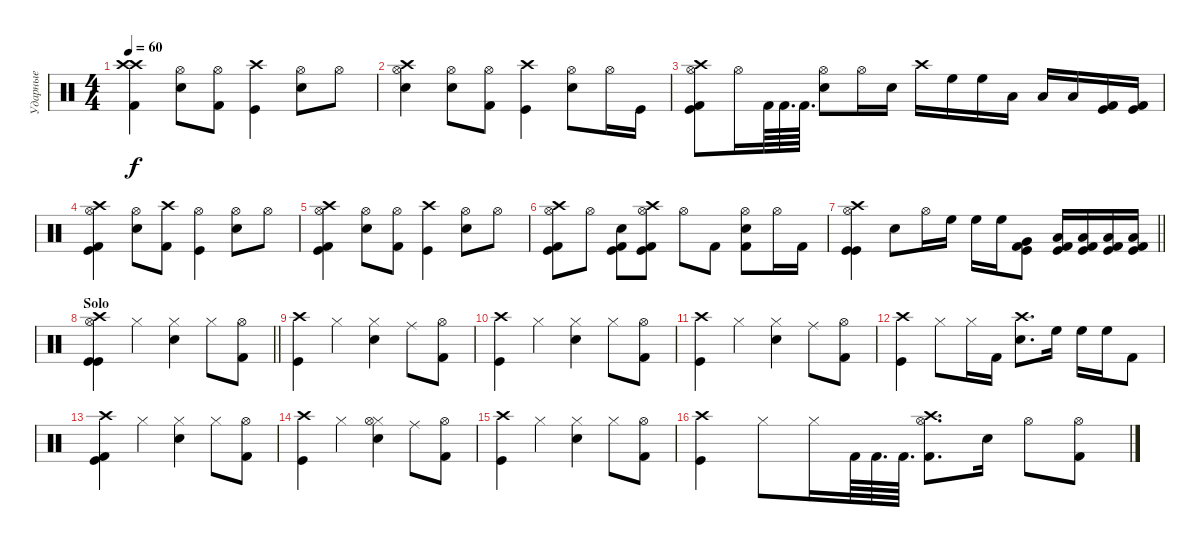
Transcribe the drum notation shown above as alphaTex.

\track ("Ударные" "Ударные") {instrument percussion}
\staff {score}
\articulation defaults
\ts (4 4)
\section ("" "")
\tempo 60
\clef neutral
\ks c
("Crash high (hit)" "Kick (hit) 2" "Crash high (hit)").4{dy f} ("Hi-Hat (open)" "Snare (hit) 2").8 ("Hi-Hat (open)" "Kick (hit) 2").8 ("Crash high (hit)" "Kick (hit)").4 ("Hi-Hat (open)" "Snare (hit) 2").8 "Hi-Hat (open)".8 |
("Crash high (hit)" "Hi-Hat (open)" "Snare (hit) 2").4 ("Hi-Hat (open)" "Snare (hit) 2").8 ("Hi-Hat (open)" "Kick (hit) 2").8 ("Crash high (hit)" "Kick (hit)").4 ("Hi-Hat (open)" "Snare (hit) 2").8 "Hi-Hat (open)".16 "Kick (hit)".16 |
("Crash high (hit)" "Kick (hit) 2" "Kick (hit)" "Hi-Hat (open)").8 "Hi-Hat (open)".16 "Kick (hit) 2".64 "Kick (hit) 2".64{d} "Kick (hit) 2".64{d} ("Hi-Hat (open)" "Snare (hit) 2").8 "Hi-Hat (open)".16 "Snare (hit) 2".16 "Crash high (hit)".16 "High Floor Tom (hit)".16 "High Floor Tom (hit)".16 "Low Floor Tom (hit)".16 "Low Floor Tom (hit)".16 "Low Floor Tom (hit)".16 ("Kick (hit) 2" "Kick (hit)").16 ("Kick (hit) 2" "Kick (hit)").16 |
("Crash high (hit)" "Kick (hit) 2" "Kick (hit)" "Hi-Hat (open)").4 ("Hi-Hat (open)" "Snare (hit) 2").8{beam merge} ("Crash high (hit)" "Kick (hit) 2").8 ("Hi-Hat (open)" "Kick (hit)").4 ("Hi-Hat (open)" "Snare (hit) 2").8 "Hi-Hat (open)".8 |
("Kick (hit)" "Crash high (hit)" "Kick (hit) 2" "Hi-Hat (open)").4 ("Hi-Hat (open)" "Snare (hit) 2").8 ("Hi-Hat (open)" "Kick (hit) 2").8 ("Crash high (hit)" "Kick (hit)").4 ("Hi-Hat (open)" "Snare (hit) 2").8 "Hi-Hat (open)".8 |
("Crash high (hit)" "Kick (hit)" "Kick (hit) 2" "Hi-Hat (open)").8 "Hi-Hat (open)".8 ("Snare (hit) 2" "Kick (hit) 2" "Kick (hit)").8 ("Crash high (hit)" "Kick (hit)" "Kick (hit) 2" "Hi-Hat (open)").8 "Hi-Hat (open)".8 "Kick (hit) 2".8 ("Hi-Hat (open)" "Snare (hit) 2" "Kick (hit) 2").8 "Hi-Hat (open)".16 "Kick (hit) 2".16 |
\barLineRight lightlight
("Crash high (hit)" "Kick (hit)" "Kick (hit)" "Hi-Hat (open)").4 "Snare (hit) 2".8 "Hi-Hat (open)".16 "High Floor Tom (hit)".16 "High Floor Tom (hit)".16 "High Floor Tom (hit)".16 ("Very Low Tom (hit)" "Kick (hit) 2" "Kick (hit)").8 ("Low Floor Tom (hit)" "Kick (hit)" "Kick (hit) 2").16 ("Low Floor Tom (hit)" "Kick (hit) 2" "Kick (hit)").16 ("Low Floor Tom (hit)" "Kick (hit) 2" "Kick (hit)").16 ("Low Floor Tom (hit)" "Kick (hit) 2" "Kick (hit)").16 |
\section ("" "Solo")
\barLineRight lightlight
("Crash high (hit)" "Kick (hit)" "Kick (hit)" "Hi-Hat (open)").4 "Hi-Hat (closed)".4 ("Hi-Hat (closed)" "Snare (hit) 2").4 "Hi-Hat (closed)".8 ("Hi-Hat (open)" "Kick (hit) 2").8 |
("Crash high (hit)" "Kick (hit)").4 "Hi-Hat (closed)".4 ("Hi-Hat (closed)" "Snare (hit) 2").4 "Ride (middle)".8 ("Hi-Hat (open)" "Kick (hit) 2").8 |
("Crash high (hit)" "Kick (hit)").4 "Hi-Hat (closed)".4 ("Hi-Hat (closed)" "Snare (hit) 2").4 "Hi-Hat (closed)".8 ("Hi-Hat (open)" "Kick (hit) 2").8 |
("Crash high (hit)" "Kick (hit)").4 "Hi-Hat (closed)".4 ("Hi-Hat (closed)" "Snare (hit) 2").4 "Ride (middle)".8 ("Hi-Hat (open)" "Kick (hit) 2").8 |
("Crash high (hit)" "Kick (hit)").4 "Hi-Hat (closed)".8 "Hi-Hat (closed)".16 "Kick (hit) 2".16 ("Crash high (hit)" "Snare (hit) 2").8{d} "High Floor Tom (hit)".16 "High Floor Tom (hit)".16 "High Floor Tom (hit)".16 "Kick (hit) 2".8 |
("Crash high (hit)" "Kick (hit)" "Kick (hit) 2").4 "Hi-Hat (closed)".4 ("Hi-Hat (closed)" "Snare (hit) 2").4 "Hi-Hat (closed)".8 ("Hi-Hat (open)" "Kick (hit) 2").8 |
("Crash high (hit)" "Kick (hit)").4 "Hi-Hat (closed)".4 ("Hi-Hat (closed)" "Hi-Hat (open)" "Snare (hit) 2").4 "Ride (middle)".8 ("Hi-Hat (open)" "Kick (hit) 2").8 |
("Crash high (hit)" "Kick (hit)").4 "Hi-Hat (closed)".4 ("Hi-Hat (closed)" "Snare (hit) 2").4 "Hi-Hat (closed)".8 ("Hi-Hat (open)" "Kick (hit) 2").8 |
("Crash high (hit)" "Kick (hit)").4 "Hi-Hat (closed)".8 "Hi-Hat (closed)".16 "Kick (hit) 2".64 "Kick (hit) 2".64{d} "Kick (hit) 2".64{d} ("Crash high (hit)" "Hi-Hat (open)" "Kick (hit) 2").8{d} "Snare (hit) 2".16 "Hi-Hat (open)".8 ("Hi-Hat (open)" "Kick (hit) 2").8
